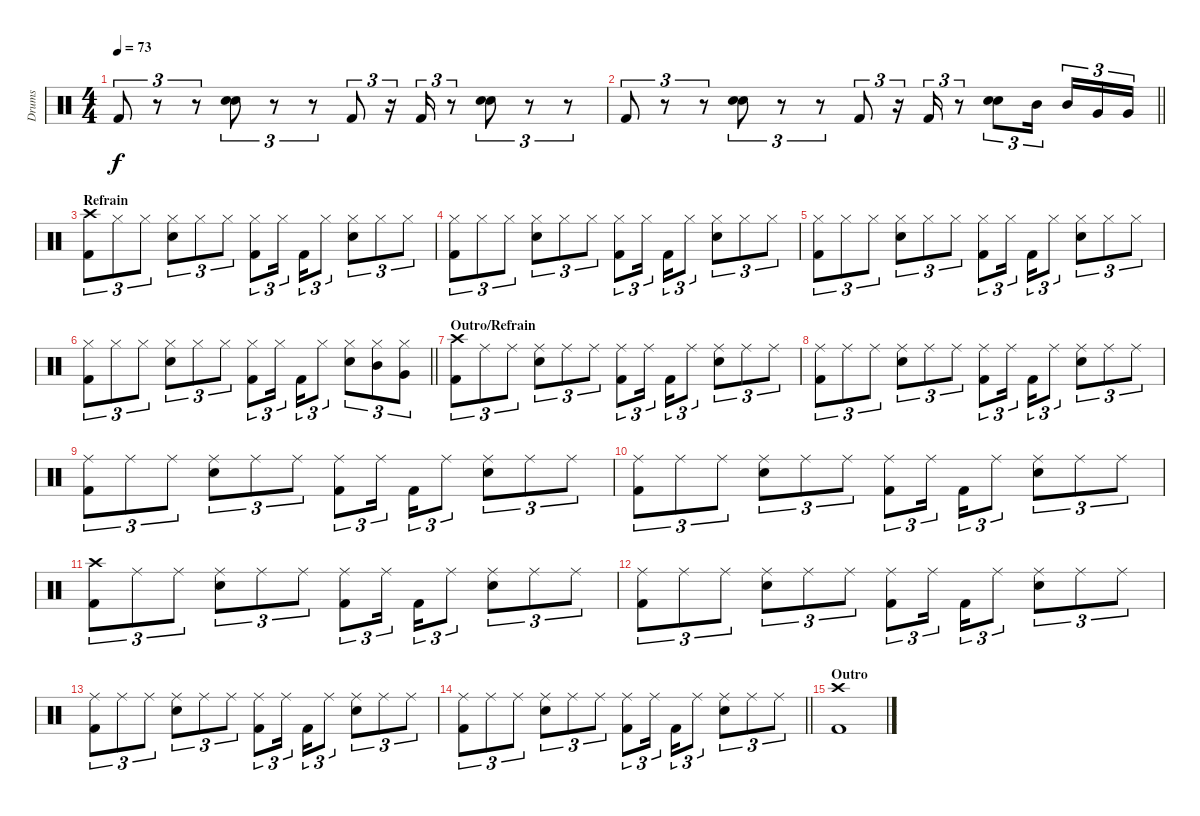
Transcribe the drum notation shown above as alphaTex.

\track ("Drums" "Drums") {instrument percussion}
\staff {score}
\articulation defaults
\ts (4 4)
\tempo 73
\clef neutral
\ks c "Kick (hit) 2".8{tu (3 2) dy f}
r.8{tu (3 2)} r.8{tu (3 2)} ("Snare (hit) 2" "Electric Snare (hit)").8{tu (3 2)} r.8{tu (3 2)} r.8{tu (3 2)} "Kick (hit) 2".8{tu (3 2)} r.16{tu (3 2)} "Kick (hit) 2".16{tu (3 2)} r.8{tu (3 2)} ("Snare (hit) 2" "Electric Snare (hit)").8{tu (3 2)} r.8{tu (3 2)} r.8{tu (3 2)} |
\barLineRight lightlight "Kick (hit) 2".8{tu (3 2)}
r.8{tu (3 2)} r.8{tu (3 2)} ("Snare (hit) 2" "Electric Snare (hit)").8{tu (3 2)} r.8{tu (3 2)} r.8{tu (3 2)} "Kick (hit) 2".8{tu (3 2)} r.16{tu (3 2)} "Kick (hit) 2".16{tu (3 2)} r.8{tu (3 2)} ("Snare (hit) 2" "Electric Snare (hit)").8{tu (3 2)} "Mid Tom (hit)".16{tu (3 2) beam splitsecondary} "Mid Tom (hit)".16{tu (3 2)} "Very Low Tom (hit)".16{tu (3 2)} "Very Low Tom (hit)".16{tu (3 2)} |
\section ("" "Refrain")
("Crash high (hit)" "Kick (hit) 2").8{tu (3 2)} "Hi-Hat (closed)".8{tu (3 2)} "Hi-Hat (closed)".8{tu (3 2)} ("Hi-Hat (closed)" "Snare (hit) 2").8{tu (3 2)} "Hi-Hat (closed)".8{tu (3 2)} "Hi-Hat (closed)".8{tu (3 2)} ("Hi-Hat (closed)" "Kick (hit) 2").8{tu (3 2)} "Hi-Hat (closed)".16{tu (3 2) beam splitsecondary} "Kick (hit) 2".16{tu (3 2)} "Hi-Hat (closed)".8{tu (3 2)} ("Hi-Hat (closed)" "Snare (hit) 2").8{tu (3 2)} "Hi-Hat (closed)".8{tu (3 2)} "Hi-Hat (closed)".8{tu (3 2)} |
("Hi-Hat (closed)" "Kick (hit) 2").8{tu (3 2)} "Hi-Hat (closed)".8{tu (3 2)} "Hi-Hat (closed)".8{tu (3 2)} ("Hi-Hat (closed)" "Snare (hit) 2").8{tu (3 2)} "Hi-Hat (closed)".8{tu (3 2)} "Hi-Hat (closed)".8{tu (3 2)} ("Hi-Hat (closed)" "Kick (hit) 2").8{tu (3 2)} "Hi-Hat (closed)".16{tu (3 2) beam splitsecondary} "Kick (hit) 2".16{tu (3 2)} "Hi-Hat (closed)".8{tu (3 2)} ("Hi-Hat (closed)" "Snare (hit) 2").8{tu (3 2)} "Hi-Hat (closed)".8{tu (3 2)} "Hi-Hat (closed)".8{tu (3 2)} |
("Hi-Hat (closed)" "Kick (hit) 2").8{tu (3 2)} "Hi-Hat (closed)".8{tu (3 2)} "Hi-Hat (closed)".8{tu (3 2)} ("Hi-Hat (closed)" "Snare (hit) 2").8{tu (3 2)} "Hi-Hat (closed)".8{tu (3 2)} "Hi-Hat (closed)".8{tu (3 2)} ("Hi-Hat (closed)" "Kick (hit) 2").8{tu (3 2)} "Hi-Hat (closed)".16{tu (3 2) beam splitsecondary} "Kick (hit) 2".16{tu (3 2)} "Hi-Hat (closed)".8{tu (3 2)} ("Hi-Hat (closed)" "Snare (hit) 2").8{tu (3 2)} "Hi-Hat (closed)".8{tu (3 2)} "Hi-Hat (closed)".8{tu (3 2)} |
\barLineRight lightlight
("Hi-Hat (closed)" "Kick (hit) 2").8{tu (3 2)} "Hi-Hat (closed)".8{tu (3 2)} "Hi-Hat (closed)".8{tu (3 2)} ("Hi-Hat (closed)" "Snare (hit) 2").8{tu (3 2)} "Hi-Hat (closed)".8{tu (3 2)} "Hi-Hat (closed)".8{tu (3 2)} ("Hi-Hat (closed)" "Kick (hit) 2").8{tu (3 2)} "Hi-Hat (closed)".16{tu (3 2) beam splitsecondary} "Kick (hit) 2".16{tu (3 2)} "Hi-Hat (closed)".8{tu (3 2)} ("Hi-Hat (closed)" "Snare (hit) 2").8{tu (3 2)} ("Hi-Hat (closed)" "Mid Tom (hit)").8{tu (3 2)} ("Hi-Hat (closed)" "Very Low Tom (hit)").8{tu (3 2)} |
\section ("" "Outro/Refrain")
("Crash high (hit)" "Kick (hit) 2").8{tu (3 2)} "Ride (middle)".8{tu (3 2)} "Ride (middle)".8{tu (3 2)} ("Ride (middle)" "Snare (hit) 2").8{tu (3 2)} "Ride (middle)".8{tu (3 2)} "Ride (middle)".8{tu (3 2)} ("Ride (middle)" "Kick (hit) 2").8{tu (3 2)} "Ride (middle)".16{tu (3 2) beam splitsecondary} "Kick (hit) 2".16{tu (3 2)} "Ride (middle)".8{tu (3 2)} ("Ride (middle)" "Snare (hit) 2").8{tu (3 2)} "Ride (middle)".8{tu (3 2)} "Ride (middle)".8{tu (3 2)} |
("Ride (middle)" "Kick (hit) 2").8{tu (3 2)} "Ride (middle)".8{tu (3 2)} "Ride (middle)".8{tu (3 2)} ("Ride (middle)" "Snare (hit) 2").8{tu (3 2)} "Ride (middle)".8{tu (3 2)} "Ride (middle)".8{tu (3 2)} ("Ride (middle)" "Kick (hit) 2").8{tu (3 2)} "Ride (middle)".16{tu (3 2) beam splitsecondary} "Kick (hit) 2".16{tu (3 2)} "Ride (middle)".8{tu (3 2)} ("Ride (middle)" "Snare (hit) 2").8{tu (3 2)} "Ride (middle)".8{tu (3 2)} "Ride (middle)".8{tu (3 2)} |
("Ride (middle)" "Kick (hit) 2").8{tu (3 2)} "Ride (middle)".8{tu (3 2)} "Ride (middle)".8{tu (3 2)} ("Ride (middle)" "Snare (hit) 2").8{tu (3 2)} "Ride (middle)".8{tu (3 2)} "Ride (middle)".8{tu (3 2)} ("Ride (middle)" "Kick (hit) 2").8{tu (3 2)} "Ride (middle)".16{tu (3 2) beam splitsecondary} "Kick (hit) 2".16{tu (3 2)} "Ride (middle)".8{tu (3 2)} ("Ride (middle)" "Snare (hit) 2").8{tu (3 2)} "Ride (middle)".8{tu (3 2)} "Ride (middle)".8{tu (3 2)} |
("Ride (middle)" "Kick (hit) 2").8{tu (3 2)} "Ride (middle)".8{tu (3 2)} "Ride (middle)".8{tu (3 2)} ("Ride (middle)" "Snare (hit) 2").8{tu (3 2)} "Ride (middle)".8{tu (3 2)} "Ride (middle)".8{tu (3 2)} ("Ride (middle)" "Kick (hit) 2").8{tu (3 2)} "Ride (middle)".16{tu (3 2) beam splitsecondary} "Kick (hit) 2".16{tu (3 2)} "Ride (middle)".8{tu (3 2)} ("Ride (middle)" "Snare (hit) 2").8{tu (3 2)} "Ride (middle)".8{tu (3 2)} "Ride (middle)".8{tu (3 2)} |
("Crash high (hit)" "Kick (hit) 2").8{tu (3 2)} "Ride (middle)".8{tu (3 2)} "Ride (middle)".8{tu (3 2)} ("Ride (middle)" "Snare (hit) 2").8{tu (3 2)} "Ride (middle)".8{tu (3 2)} "Ride (middle)".8{tu (3 2)} ("Ride (middle)" "Kick (hit) 2").8{tu (3 2)} "Ride (middle)".16{tu (3 2) beam splitsecondary} "Kick (hit) 2".16{tu (3 2)} "Ride (middle)".8{tu (3 2)} ("Ride (middle)" "Snare (hit) 2").8{tu (3 2)} "Ride (middle)".8{tu (3 2)} "Ride (middle)".8{tu (3 2)} |
("Ride (middle)" "Kick (hit) 2").8{tu (3 2)} "Ride (middle)".8{tu (3 2)} "Ride (middle)".8{tu (3 2)} ("Ride (middle)" "Snare (hit) 2").8{tu (3 2)} "Ride (middle)".8{tu (3 2)} "Ride (middle)".8{tu (3 2)} ("Ride (middle)" "Kick (hit) 2").8{tu (3 2)} "Ride (middle)".16{tu (3 2) beam splitsecondary} "Kick (hit) 2".16{tu (3 2)} "Ride (middle)".8{tu (3 2)} ("Ride (middle)" "Snare (hit) 2").8{tu (3 2)} "Ride (middle)".8{tu (3 2)} "Ride (middle)".8{tu (3 2)} |
("Ride (middle)" "Kick (hit) 2").8{tu (3 2)} "Ride (middle)".8{tu (3 2)} "Ride (middle)".8{tu (3 2)} ("Ride (middle)" "Snare (hit) 2").8{tu (3 2)} "Ride (middle)".8{tu (3 2)} "Ride (middle)".8{tu (3 2)} ("Ride (middle)" "Kick (hit) 2").8{tu (3 2)} "Ride (middle)".16{tu (3 2) beam splitsecondary} "Kick (hit) 2".16{tu (3 2)} "Ride (middle)".8{tu (3 2)} ("Ride (middle)" "Snare (hit) 2").8{tu (3 2)} "Ride (middle)".8{tu (3 2)} "Ride (middle)".8{tu (3 2)} |
\barLineRight lightlight
("Ride (middle)" "Kick (hit) 2").8{tu (3 2)} "Ride (middle)".8{tu (3 2)} "Ride (middle)".8{tu (3 2)} ("Ride (middle)" "Snare (hit) 2").8{tu (3 2)} "Ride (middle)".8{tu (3 2)} "Ride (middle)".8{tu (3 2)} ("Ride (middle)" "Kick (hit) 2").8{tu (3 2)} "Ride (middle)".16{tu (3 2) beam splitsecondary} "Kick (hit) 2".16{tu (3 2)} "Ride (middle)".8{tu (3 2)} ("Ride (middle)" "Snare (hit) 2").8{tu (3 2)} "Ride (middle)".8{tu (3 2)} "Ride (middle)".8{tu (3 2)} |
\section ("" "Outro")
("Crash high (hit)" "Kick (hit) 2").1
